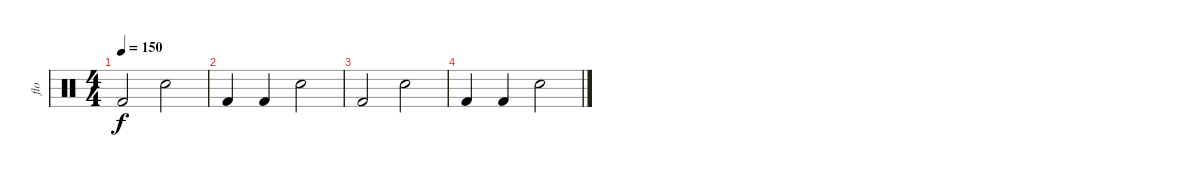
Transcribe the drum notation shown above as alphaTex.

\track ("flo" "flo") {instrument percussion}
\staff {score}
\articulation defaults
\ts (4 4)
\tempo 150
\clef neutral
\ks c "Kick (hit) 2".2{dy f} "Electric Snare (hit)".2
|
"Kick (hit) 2".4 "Kick (hit) 2".4 "Electric Snare (hit)".2 |
"Kick (hit) 2".2 "Electric Snare (hit)".2 |
"Kick (hit) 2".4 "Kick (hit) 2".4 "Electric Snare (hit)".2
